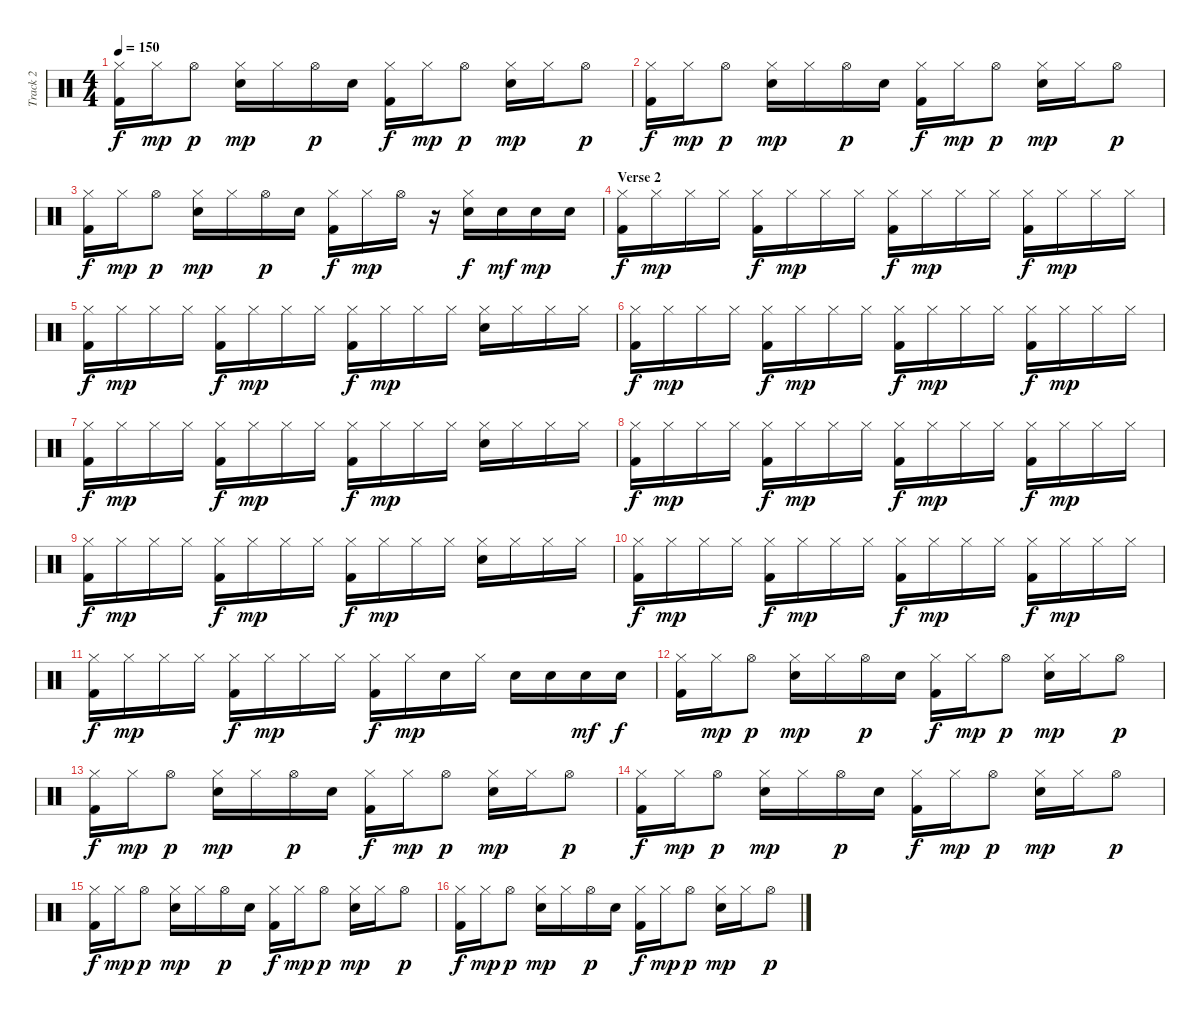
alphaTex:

\track ("Track 2" "Track 2") {instrument percussion}
\staff {score}
\articulation defaults
\ts (4 4)
\tempo 150
\clef neutral
\ks c
("Hi-Hat (closed)" "Kick (hit) 2").16{dy f} "Hi-Hat (closed)".16{dy mp} "Hi-Hat (open)".8{dy p} ("Hi-Hat (closed)" "Electric Snare (hit)").16{dy mp} "Hi-Hat (closed)".16 "Hi-Hat (open)".16{dy p} "Electric Snare (hit)".16 ("Hi-Hat (closed)" "Kick (hit) 2").16{dy f} "Hi-Hat (closed)".16{dy mp} "Hi-Hat (open)".8{dy p} ("Hi-Hat (closed)" "Electric Snare (hit)").16{dy mp} "Hi-Hat (closed)".16 "Hi-Hat (open)".8{dy p} |
("Hi-Hat (closed)" "Kick (hit) 2").16{dy f} "Hi-Hat (closed)".16{dy mp} "Hi-Hat (open)".8{dy p} ("Hi-Hat (closed)" "Electric Snare (hit)").16{dy mp} "Hi-Hat (closed)".16 "Hi-Hat (open)".16{dy p} "Electric Snare (hit)".16 ("Hi-Hat (closed)" "Kick (hit) 2").16{dy f} "Hi-Hat (closed)".16{dy mp} "Hi-Hat (open)".8{dy p} ("Hi-Hat (closed)" "Electric Snare (hit)").16{dy mp} "Hi-Hat (closed)".16 "Hi-Hat (open)".8{dy p} |
("Hi-Hat (closed)" "Kick (hit) 2").16{dy f} "Hi-Hat (closed)".16{dy mp} "Hi-Hat (open)".8{dy p} ("Hi-Hat (closed)" "Electric Snare (hit)").16{dy mp} "Hi-Hat (closed)".16 "Hi-Hat (open)".16{dy p} "Electric Snare (hit)".16 ("Hi-Hat (closed)" "Kick (hit) 2").16{dy f} "Hi-Hat (closed)".16{dy mp} "Hi-Hat (open)".16 r.16 ("Hi-Hat (closed)" "Electric Snare (hit)").16{dy f} "Electric Snare (hit)".16{dy mf} "Electric Snare (hit)".16{dy mp} "Electric Snare (hit)".16 |
\section ("" "Verse 2")
("Hi-Hat (closed)" "Kick (hit) 2").16{dy f} "Hi-Hat (closed)".16{dy mp} "Hi-Hat (closed)".16 "Hi-Hat (closed)".16 ("Hi-Hat (closed)" "Kick (hit) 2").16{dy f} "Hi-Hat (closed)".16{dy mp} "Hi-Hat (closed)".16 "Hi-Hat (closed)".16 ("Hi-Hat (closed)" "Kick (hit) 2").16{dy f} "Hi-Hat (closed)".16{dy mp} "Hi-Hat (closed)".16 "Hi-Hat (closed)".16 ("Hi-Hat (closed)" "Kick (hit) 2").16{dy f} "Hi-Hat (closed)".16{dy mp} "Hi-Hat (closed)".16 "Hi-Hat (closed)".16 |
("Hi-Hat (closed)" "Kick (hit) 2").16{dy f} "Hi-Hat (closed)".16{dy mp} "Hi-Hat (closed)".16 "Hi-Hat (closed)".16 ("Hi-Hat (closed)" "Kick (hit) 2").16{dy f} "Hi-Hat (closed)".16{dy mp} "Hi-Hat (closed)".16 "Hi-Hat (closed)".16 ("Hi-Hat (closed)" "Kick (hit) 2").16{dy f} "Hi-Hat (closed)".16{dy mp} "Hi-Hat (closed)".16 "Hi-Hat (closed)".16 ("Hi-Hat (closed)" "Electric Snare (hit)").16 "Hi-Hat (closed)".16 "Hi-Hat (closed)".16 "Hi-Hat (closed)".16 |
("Hi-Hat (closed)" "Kick (hit) 2").16{dy f} "Hi-Hat (closed)".16{dy mp} "Hi-Hat (closed)".16 "Hi-Hat (closed)".16 ("Hi-Hat (closed)" "Kick (hit) 2").16{dy f} "Hi-Hat (closed)".16{dy mp} "Hi-Hat (closed)".16 "Hi-Hat (closed)".16 ("Hi-Hat (closed)" "Kick (hit) 2").16{dy f} "Hi-Hat (closed)".16{dy mp} "Hi-Hat (closed)".16 "Hi-Hat (closed)".16 ("Hi-Hat (closed)" "Kick (hit) 2").16{dy f} "Hi-Hat (closed)".16{dy mp} "Hi-Hat (closed)".16 "Hi-Hat (closed)".16 |
("Hi-Hat (closed)" "Kick (hit) 2").16{dy f} "Hi-Hat (closed)".16{dy mp} "Hi-Hat (closed)".16 "Hi-Hat (closed)".16 ("Hi-Hat (closed)" "Kick (hit) 2").16{dy f} "Hi-Hat (closed)".16{dy mp} "Hi-Hat (closed)".16 "Hi-Hat (closed)".16 ("Hi-Hat (closed)" "Kick (hit) 2").16{dy f} "Hi-Hat (closed)".16{dy mp} "Hi-Hat (closed)".16 "Hi-Hat (closed)".16 ("Hi-Hat (closed)" "Electric Snare (hit)").16 "Hi-Hat (closed)".16 "Hi-Hat (closed)".16 "Hi-Hat (closed)".16 |
("Hi-Hat (closed)" "Kick (hit) 2").16{dy f} "Hi-Hat (closed)".16{dy mp} "Hi-Hat (closed)".16 "Hi-Hat (closed)".16 ("Hi-Hat (closed)" "Kick (hit) 2").16{dy f} "Hi-Hat (closed)".16{dy mp} "Hi-Hat (closed)".16 "Hi-Hat (closed)".16 ("Hi-Hat (closed)" "Kick (hit) 2").16{dy f} "Hi-Hat (closed)".16{dy mp} "Hi-Hat (closed)".16 "Hi-Hat (closed)".16 ("Hi-Hat (closed)" "Kick (hit) 2").16{dy f} "Hi-Hat (closed)".16{dy mp} "Hi-Hat (closed)".16 "Hi-Hat (closed)".16 |
("Hi-Hat (closed)" "Kick (hit) 2").16{dy f} "Hi-Hat (closed)".16{dy mp} "Hi-Hat (closed)".16 "Hi-Hat (closed)".16 ("Hi-Hat (closed)" "Kick (hit) 2").16{dy f} "Hi-Hat (closed)".16{dy mp} "Hi-Hat (closed)".16 "Hi-Hat (closed)".16 ("Hi-Hat (closed)" "Kick (hit) 2").16{dy f} "Hi-Hat (closed)".16{dy mp} "Hi-Hat (closed)".16 "Hi-Hat (closed)".16 ("Hi-Hat (closed)" "Electric Snare (hit)").16 "Hi-Hat (closed)".16 "Hi-Hat (closed)".16 "Hi-Hat (closed)".16 |
("Hi-Hat (closed)" "Kick (hit) 2").16{dy f} "Hi-Hat (closed)".16{dy mp} "Hi-Hat (closed)".16 "Hi-Hat (closed)".16 ("Hi-Hat (closed)" "Kick (hit) 2").16{dy f} "Hi-Hat (closed)".16{dy mp} "Hi-Hat (closed)".16 "Hi-Hat (closed)".16 ("Hi-Hat (closed)" "Kick (hit) 2").16{dy f} "Hi-Hat (closed)".16{dy mp} "Hi-Hat (closed)".16 "Hi-Hat (closed)".16 ("Hi-Hat (closed)" "Kick (hit) 2").16{dy f} "Hi-Hat (closed)".16{dy mp} "Hi-Hat (closed)".16 "Hi-Hat (closed)".16 |
("Hi-Hat (closed)" "Kick (hit) 2").16{dy f} "Hi-Hat (closed)".16{dy mp} "Hi-Hat (closed)".16 "Hi-Hat (closed)".16 ("Hi-Hat (closed)" "Kick (hit) 2").16{dy f} "Hi-Hat (closed)".16{dy mp} "Hi-Hat (closed)".16 "Hi-Hat (closed)".16 ("Hi-Hat (closed)" "Kick (hit) 2").16{dy f} "Hi-Hat (closed)".16{dy mp} "Electric Snare (hit)".16 "Hi-Hat (closed)".16 "Electric Snare (hit)".16 "Electric Snare (hit)".16 "Electric Snare (hit)".16{dy mf} "Electric Snare (hit)".16{dy f} |
("Hi-Hat (closed)" "Kick (hit) 2").16 "Hi-Hat (closed)".16{dy mp} "Hi-Hat (open)".8{dy p} ("Hi-Hat (closed)" "Electric Snare (hit)").16{dy mp} "Hi-Hat (closed)".16 "Hi-Hat (open)".16{dy p} "Electric Snare (hit)".16 ("Hi-Hat (closed)" "Kick (hit) 2").16{dy f} "Hi-Hat (closed)".16{dy mp} "Hi-Hat (open)".8{dy p} ("Hi-Hat (closed)" "Electric Snare (hit)").16{dy mp} "Hi-Hat (closed)".16 "Hi-Hat (open)".8{dy p} |
("Hi-Hat (closed)" "Kick (hit) 2").16{dy f} "Hi-Hat (closed)".16{dy mp} "Hi-Hat (open)".8{dy p} ("Hi-Hat (closed)" "Electric Snare (hit)").16{dy mp} "Hi-Hat (closed)".16 "Hi-Hat (open)".16{dy p} "Electric Snare (hit)".16 ("Hi-Hat (closed)" "Kick (hit) 2").16{dy f} "Hi-Hat (closed)".16{dy mp} "Hi-Hat (open)".8{dy p} ("Hi-Hat (closed)" "Electric Snare (hit)").16{dy mp} "Hi-Hat (closed)".16 "Hi-Hat (open)".8{dy p} |
("Hi-Hat (closed)" "Kick (hit) 2").16{dy f} "Hi-Hat (closed)".16{dy mp} "Hi-Hat (open)".8{dy p} ("Hi-Hat (closed)" "Electric Snare (hit)").16{dy mp} "Hi-Hat (closed)".16 "Hi-Hat (open)".16{dy p} "Electric Snare (hit)".16 ("Hi-Hat (closed)" "Kick (hit) 2").16{dy f} "Hi-Hat (closed)".16{dy mp} "Hi-Hat (open)".8{dy p} ("Hi-Hat (closed)" "Electric Snare (hit)").16{dy mp} "Hi-Hat (closed)".16 "Hi-Hat (open)".8{dy p} |
("Hi-Hat (closed)" "Kick (hit) 2").16{dy f} "Hi-Hat (closed)".16{dy mp} "Hi-Hat (open)".8{dy p} ("Hi-Hat (closed)" "Electric Snare (hit)").16{dy mp} "Hi-Hat (closed)".16 "Hi-Hat (open)".16{dy p} "Electric Snare (hit)".16 ("Hi-Hat (closed)" "Kick (hit) 2").16{dy f} "Hi-Hat (closed)".16{dy mp} "Hi-Hat (open)".8{dy p} ("Hi-Hat (closed)" "Electric Snare (hit)").16{dy mp} "Hi-Hat (closed)".16 "Hi-Hat (open)".8{dy p} |
("Hi-Hat (closed)" "Kick (hit) 2").16{dy f} "Hi-Hat (closed)".16{dy mp} "Hi-Hat (open)".8{dy p} ("Hi-Hat (closed)" "Electric Snare (hit)").16{dy mp} "Hi-Hat (closed)".16 "Hi-Hat (open)".16{dy p} "Electric Snare (hit)".16 ("Hi-Hat (closed)" "Kick (hit) 2").16{dy f} "Hi-Hat (closed)".16{dy mp} "Hi-Hat (open)".8{dy p} ("Hi-Hat (closed)" "Electric Snare (hit)").16{dy mp} "Hi-Hat (closed)".16 "Hi-Hat (open)".8{dy p}
